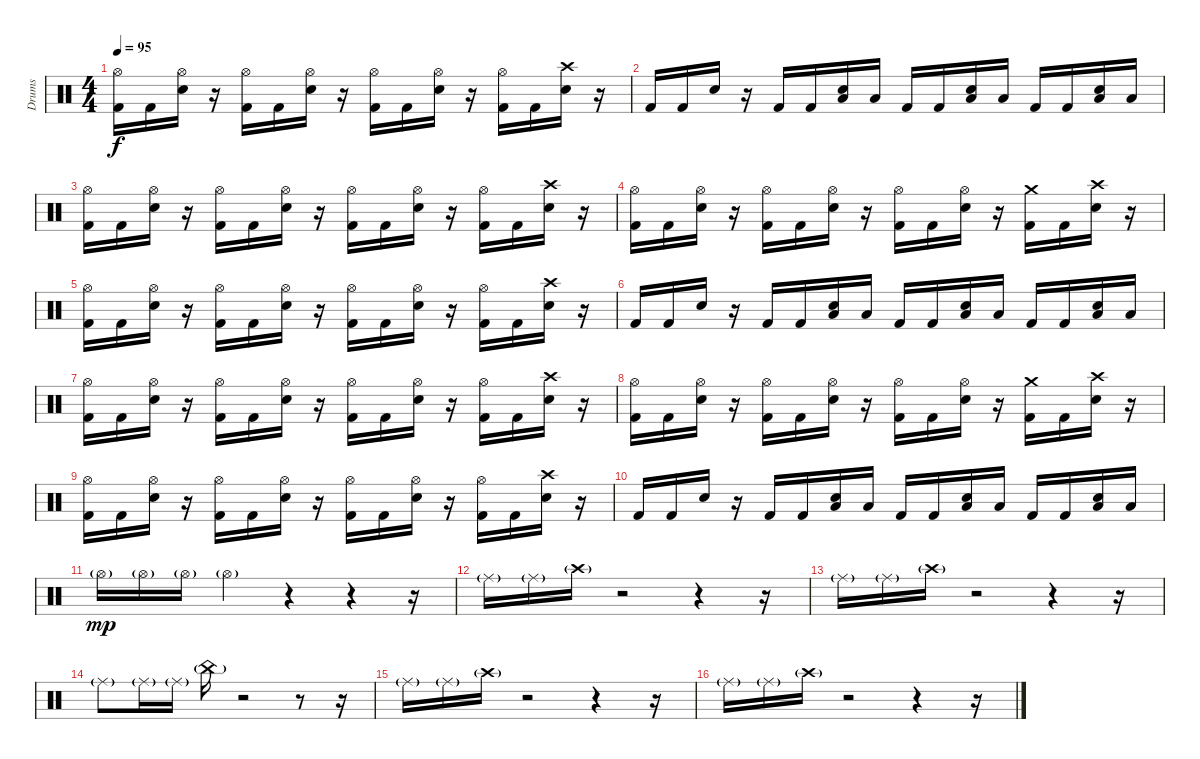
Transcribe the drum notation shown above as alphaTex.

\track ("Drums" "Drums") {instrument percussion}
\staff {score}
\articulation defaults
\ts (4 4)
\tempo 95
\clef neutral
\ks c
("Kick (hit) 2" "Hi-Hat (open)").16{dy f} "Kick (hit) 2".16 ("Snare (hit) 2" "Hi-Hat (open)").16 r.16 ("Kick (hit) 2" "Hi-Hat (open)").16 "Kick (hit) 2".16 ("Snare (hit) 2" "Hi-Hat (open)").16 r.16 ("Kick (hit) 2" "Hi-Hat (open)").16 "Kick (hit) 2".16 ("Snare (hit) 2" "Hi-Hat (open)").16 r.16 ("Kick (hit) 2" "Hi-Hat (open)").16 "Kick (hit) 2".16 ("Snare (hit) 2" "Crash high (hit)").16 r.16 |
"Kick (hit) 2".16 "Kick (hit) 2".16 "Snare (hit) 2".16 r.16 "Kick (hit) 2".16 "Kick (hit) 2".16 ("Snare (hit) 2" "Low Tom (hit)").16 "Low Tom (hit)".16 "Kick (hit) 2".16 "Kick (hit) 2".16 ("Snare (hit) 2" "Low Tom (hit)").16 "Low Tom (hit)".16 "Kick (hit) 2".16 "Kick (hit) 2".16 ("Snare (hit) 2" "Low Tom (hit)").16 "Low Tom (hit)".16 |
("Kick (hit) 2" "Hi-Hat (open)").16 "Kick (hit) 2".16 ("Snare (hit) 2" "Hi-Hat (open)").16 r.16 ("Kick (hit) 2" "Hi-Hat (open)").16 "Kick (hit) 2".16 ("Snare (hit) 2" "Hi-Hat (open)").16 r.16 ("Kick (hit) 2" "Hi-Hat (open)").16 "Kick (hit) 2".16 ("Snare (hit) 2" "Hi-Hat (open)").16 r.16 ("Kick (hit) 2" "Hi-Hat (open)").16 "Kick (hit) 2".16 ("Snare (hit) 2" "Crash high (hit)").16 r.16 |
("Kick (hit) 2" "Hi-Hat (open)").16 "Kick (hit) 2".16 ("Snare (hit) 2" "Hi-Hat (open)").16 r.16 ("Kick (hit) 2" "Hi-Hat (open)").16 "Kick (hit) 2".16 ("Snare (hit) 2" "Hi-Hat (open)").16 r.16 ("Kick (hit) 2" "Hi-Hat (open)").16 "Kick (hit) 2".16 ("Snare (hit) 2" "Hi-Hat (open)").16 r.16 ("Kick (hit) 2" "Crash medium (hit)").16 "Kick (hit) 2".16 ("Snare (hit) 2" "Crash high (hit)").16 r.16 |
("Kick (hit) 2" "Hi-Hat (open)").16 "Kick (hit) 2".16 ("Snare (hit) 2" "Hi-Hat (open)").16 r.16 ("Kick (hit) 2" "Hi-Hat (open)").16 "Kick (hit) 2".16 ("Snare (hit) 2" "Hi-Hat (open)").16 r.16 ("Kick (hit) 2" "Hi-Hat (open)").16 "Kick (hit) 2".16 ("Snare (hit) 2" "Hi-Hat (open)").16 r.16 ("Kick (hit) 2" "Hi-Hat (open)").16 "Kick (hit) 2".16 ("Snare (hit) 2" "Crash high (hit)").16 r.16 |
"Kick (hit) 2".16 "Kick (hit) 2".16 "Snare (hit) 2".16 r.16 "Kick (hit) 2".16 "Kick (hit) 2".16 ("Snare (hit) 2" "Low Tom (hit)").16 "Low Tom (hit)".16 "Kick (hit) 2".16 "Kick (hit) 2".16 ("Snare (hit) 2" "Low Tom (hit)").16 "Low Tom (hit)".16 "Kick (hit) 2".16 "Kick (hit) 2".16 ("Snare (hit) 2" "Low Tom (hit)").16 "Low Tom (hit)".16 |
("Kick (hit) 2" "Hi-Hat (open)").16 "Kick (hit) 2".16 ("Snare (hit) 2" "Hi-Hat (open)").16 r.16 ("Kick (hit) 2" "Hi-Hat (open)").16 "Kick (hit) 2".16 ("Snare (hit) 2" "Hi-Hat (open)").16 r.16 ("Kick (hit) 2" "Hi-Hat (open)").16 "Kick (hit) 2".16 ("Snare (hit) 2" "Hi-Hat (open)").16 r.16 ("Kick (hit) 2" "Hi-Hat (open)").16 "Kick (hit) 2".16 ("Snare (hit) 2" "Crash high (hit)").16 r.16 |
("Kick (hit) 2" "Hi-Hat (open)").16 "Kick (hit) 2".16 ("Snare (hit) 2" "Hi-Hat (open)").16 r.16 ("Kick (hit) 2" "Hi-Hat (open)").16 "Kick (hit) 2".16 ("Snare (hit) 2" "Hi-Hat (open)").16 r.16 ("Kick (hit) 2" "Hi-Hat (open)").16 "Kick (hit) 2".16 ("Snare (hit) 2" "Hi-Hat (open)").16 r.16 ("Kick (hit) 2" "Crash medium (hit)").16 "Kick (hit) 2".16 ("Snare (hit) 2" "Crash high (hit)").16 r.16 |
("Kick (hit) 2" "Hi-Hat (open)").16 "Kick (hit) 2".16 ("Snare (hit) 2" "Hi-Hat (open)").16 r.16 ("Kick (hit) 2" "Hi-Hat (open)").16 "Kick (hit) 2".16 ("Snare (hit) 2" "Hi-Hat (open)").16 r.16 ("Kick (hit) 2" "Hi-Hat (open)").16 "Kick (hit) 2".16 ("Snare (hit) 2" "Hi-Hat (open)").16 r.16 ("Kick (hit) 2" "Hi-Hat (open)").16 "Kick (hit) 2".16 ("Snare (hit) 2" "Crash high (hit)").16 r.16 |
"Kick (hit) 2".16 "Kick (hit) 2".16 "Snare (hit) 2".16 r.16 "Kick (hit) 2".16 "Kick (hit) 2".16 ("Snare (hit) 2" "Low Tom (hit)").16 "Low Tom (hit)".16 "Kick (hit) 2".16 "Kick (hit) 2".16 ("Snare (hit) 2" "Low Tom (hit)").16 "Low Tom (hit)".16 "Kick (hit) 2".16 "Kick (hit) 2".16 ("Snare (hit) 2" "Low Tom (hit)").16 "Low Tom (hit)".16 |
"Hi-Hat (open)"{g}.16{dy mp} "Hi-Hat (open)"{g}.16 "Hi-Hat (open)"{g}.16 "Hi-Hat (open)"{g}.4 r.4 r.4 r.16 |
"Ride (middle)"{g}.16 "Ride (middle)"{g}.16 "Crash high (hit)"{g}.16 r.2 r.4 r.16 |
"Ride (middle)"{g}.16 "Ride (middle)"{g}.16 "Crash high (hit)"{g}.16 r.2 r.4 r.16 |
"Ride (middle)"{g}.8 "Ride (middle)"{g}.16 "Ride (middle)"{g}.16 "China (hit)"{g}.16 r.2 r.8 r.16 |
"Ride (middle)"{g}.16 "Ride (middle)"{g}.16 "Crash high (hit)"{g}.16 r.2 r.4 r.16 |
"Ride (middle)"{g}.16 "Ride (middle)"{g}.16 "Crash high (hit)"{g}.16 r.2 r.4 r.16
